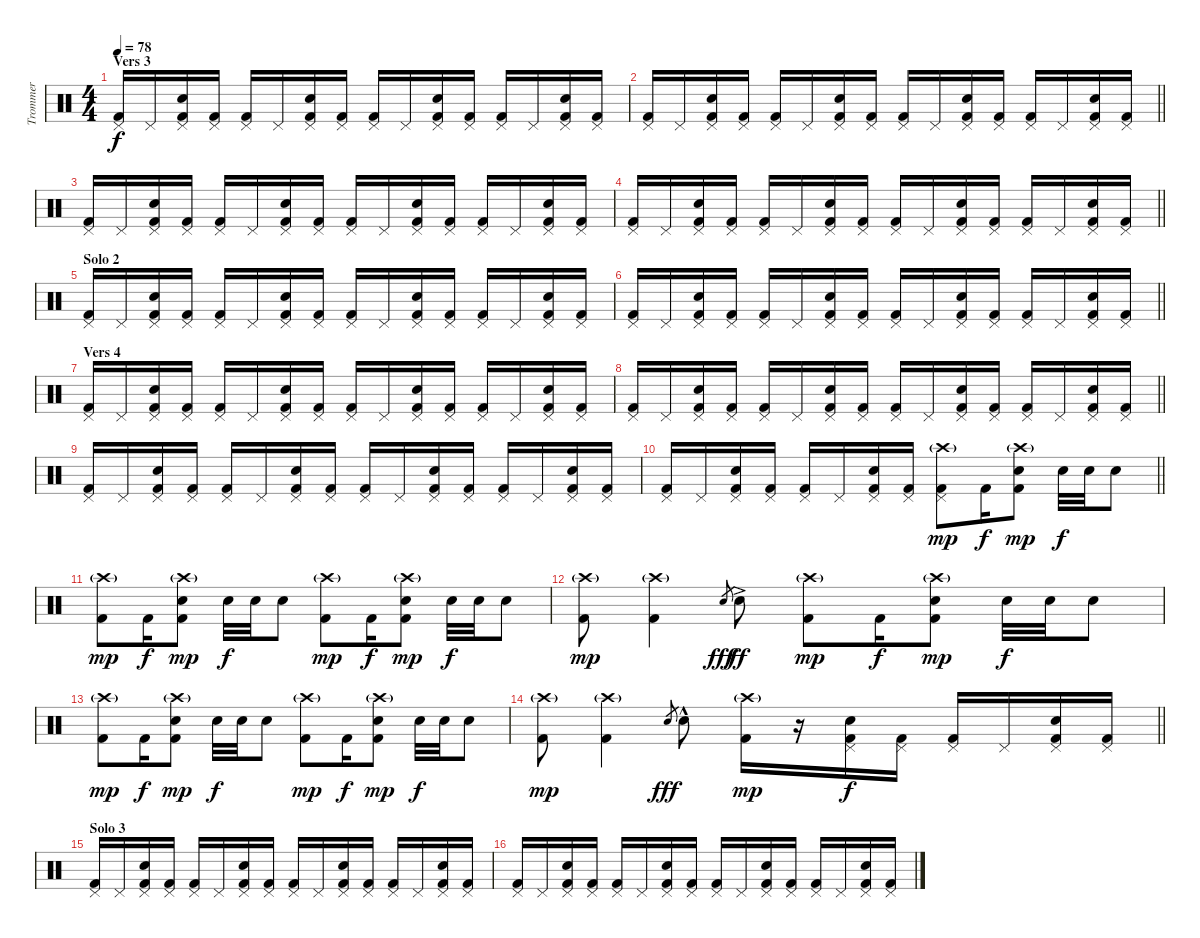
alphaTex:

\track ("Trommer" "Trommer") {instrument percussion}
\staff {score}
\articulation defaults
\ts (4 4)
\section ("" "Vers 3")
\tempo 78
\clef neutral
\ks c
("Pedal Hi-Hat (hit)" "Kick (hit) 2").16{dy f} "Pedal Hi-Hat (hit)".16 ("Pedal Hi-Hat (hit)" "Kick (hit) 2" "Electric Snare (hit)").16 ("Pedal Hi-Hat (hit)" "Kick (hit) 2").16 ("Pedal Hi-Hat (hit)" "Kick (hit) 2").16 "Pedal Hi-Hat (hit)".16 ("Pedal Hi-Hat (hit)" "Kick (hit) 2" "Electric Snare (hit)").16 ("Pedal Hi-Hat (hit)" "Kick (hit) 2").16 ("Pedal Hi-Hat (hit)" "Kick (hit) 2").16 "Pedal Hi-Hat (hit)".16 ("Pedal Hi-Hat (hit)" "Kick (hit) 2" "Electric Snare (hit)").16 ("Pedal Hi-Hat (hit)" "Kick (hit) 2").16 ("Pedal Hi-Hat (hit)" "Kick (hit) 2").16 "Pedal Hi-Hat (hit)".16 ("Pedal Hi-Hat (hit)" "Kick (hit) 2" "Electric Snare (hit)").16 ("Pedal Hi-Hat (hit)" "Kick (hit) 2").16 |
\barLineRight lightlight
("Pedal Hi-Hat (hit)" "Kick (hit) 2").16 "Pedal Hi-Hat (hit)".16 ("Pedal Hi-Hat (hit)" "Kick (hit) 2" "Electric Snare (hit)").16 ("Pedal Hi-Hat (hit)" "Kick (hit) 2").16 ("Pedal Hi-Hat (hit)" "Kick (hit) 2").16 "Pedal Hi-Hat (hit)".16 ("Pedal Hi-Hat (hit)" "Kick (hit) 2" "Electric Snare (hit)").16 ("Pedal Hi-Hat (hit)" "Kick (hit) 2").16 ("Pedal Hi-Hat (hit)" "Kick (hit) 2").16 "Pedal Hi-Hat (hit)".16 ("Pedal Hi-Hat (hit)" "Kick (hit) 2" "Electric Snare (hit)").16 ("Pedal Hi-Hat (hit)" "Kick (hit) 2").16 ("Pedal Hi-Hat (hit)" "Kick (hit) 2").16 "Pedal Hi-Hat (hit)".16 ("Pedal Hi-Hat (hit)" "Kick (hit) 2" "Electric Snare (hit)").16 ("Pedal Hi-Hat (hit)" "Kick (hit) 2").16 |
("Pedal Hi-Hat (hit)" "Kick (hit) 2").16 "Pedal Hi-Hat (hit)".16 ("Pedal Hi-Hat (hit)" "Kick (hit) 2" "Electric Snare (hit)").16 ("Pedal Hi-Hat (hit)" "Kick (hit) 2").16 ("Pedal Hi-Hat (hit)" "Kick (hit) 2").16 "Pedal Hi-Hat (hit)".16 ("Pedal Hi-Hat (hit)" "Kick (hit) 2" "Electric Snare (hit)").16 ("Pedal Hi-Hat (hit)" "Kick (hit) 2").16 ("Pedal Hi-Hat (hit)" "Kick (hit) 2").16 "Pedal Hi-Hat (hit)".16 ("Pedal Hi-Hat (hit)" "Kick (hit) 2" "Electric Snare (hit)").16 ("Pedal Hi-Hat (hit)" "Kick (hit) 2").16 ("Pedal Hi-Hat (hit)" "Kick (hit) 2").16 "Pedal Hi-Hat (hit)".16 ("Pedal Hi-Hat (hit)" "Kick (hit) 2" "Electric Snare (hit)").16 ("Pedal Hi-Hat (hit)" "Kick (hit) 2").16 |
\barLineRight lightlight
("Pedal Hi-Hat (hit)" "Kick (hit) 2").16 "Pedal Hi-Hat (hit)".16 ("Pedal Hi-Hat (hit)" "Kick (hit) 2" "Electric Snare (hit)").16 ("Pedal Hi-Hat (hit)" "Kick (hit) 2").16 ("Pedal Hi-Hat (hit)" "Kick (hit) 2").16 "Pedal Hi-Hat (hit)".16 ("Pedal Hi-Hat (hit)" "Kick (hit) 2" "Electric Snare (hit)").16 ("Pedal Hi-Hat (hit)" "Kick (hit) 2").16 ("Pedal Hi-Hat (hit)" "Kick (hit) 2").16 "Pedal Hi-Hat (hit)".16 ("Pedal Hi-Hat (hit)" "Kick (hit) 2" "Electric Snare (hit)").16 ("Pedal Hi-Hat (hit)" "Kick (hit) 2").16 ("Pedal Hi-Hat (hit)" "Kick (hit) 2").16 "Pedal Hi-Hat (hit)".16 ("Pedal Hi-Hat (hit)" "Kick (hit) 2" "Electric Snare (hit)").16 ("Pedal Hi-Hat (hit)" "Kick (hit) 2").16 |
\section ("" "Solo 2")
("Pedal Hi-Hat (hit)" "Kick (hit) 2").16 "Pedal Hi-Hat (hit)".16 ("Pedal Hi-Hat (hit)" "Kick (hit) 2" "Electric Snare (hit)").16 ("Pedal Hi-Hat (hit)" "Kick (hit) 2").16 ("Pedal Hi-Hat (hit)" "Kick (hit) 2").16 "Pedal Hi-Hat (hit)".16 ("Pedal Hi-Hat (hit)" "Kick (hit) 2" "Electric Snare (hit)").16 ("Pedal Hi-Hat (hit)" "Kick (hit) 2").16 ("Pedal Hi-Hat (hit)" "Kick (hit) 2").16 "Pedal Hi-Hat (hit)".16 ("Pedal Hi-Hat (hit)" "Kick (hit) 2" "Electric Snare (hit)").16 ("Pedal Hi-Hat (hit)" "Kick (hit) 2").16 ("Pedal Hi-Hat (hit)" "Kick (hit) 2").16 "Pedal Hi-Hat (hit)".16 ("Pedal Hi-Hat (hit)" "Kick (hit) 2" "Electric Snare (hit)").16 ("Pedal Hi-Hat (hit)" "Kick (hit) 2").16 |
\barLineRight lightlight
("Pedal Hi-Hat (hit)" "Kick (hit) 2").16 "Pedal Hi-Hat (hit)".16 ("Pedal Hi-Hat (hit)" "Kick (hit) 2" "Electric Snare (hit)").16 ("Pedal Hi-Hat (hit)" "Kick (hit) 2").16 ("Pedal Hi-Hat (hit)" "Kick (hit) 2").16 "Pedal Hi-Hat (hit)".16 ("Pedal Hi-Hat (hit)" "Kick (hit) 2" "Electric Snare (hit)").16 ("Pedal Hi-Hat (hit)" "Kick (hit) 2").16 ("Pedal Hi-Hat (hit)" "Kick (hit) 2").16 "Pedal Hi-Hat (hit)".16 ("Pedal Hi-Hat (hit)" "Kick (hit) 2" "Electric Snare (hit)").16 ("Pedal Hi-Hat (hit)" "Kick (hit) 2").16 ("Pedal Hi-Hat (hit)" "Kick (hit) 2").16 "Pedal Hi-Hat (hit)".16 ("Pedal Hi-Hat (hit)" "Kick (hit) 2" "Electric Snare (hit)").16 ("Pedal Hi-Hat (hit)" "Kick (hit) 2").16 |
\section ("" "Vers 4")
("Pedal Hi-Hat (hit)" "Kick (hit) 2").16 "Pedal Hi-Hat (hit)".16 ("Pedal Hi-Hat (hit)" "Kick (hit) 2" "Electric Snare (hit)").16 ("Pedal Hi-Hat (hit)" "Kick (hit) 2").16 ("Pedal Hi-Hat (hit)" "Kick (hit) 2").16 "Pedal Hi-Hat (hit)".16 ("Pedal Hi-Hat (hit)" "Kick (hit) 2" "Electric Snare (hit)").16 ("Pedal Hi-Hat (hit)" "Kick (hit) 2").16 ("Pedal Hi-Hat (hit)" "Kick (hit) 2").16 "Pedal Hi-Hat (hit)".16 ("Pedal Hi-Hat (hit)" "Kick (hit) 2" "Electric Snare (hit)").16 ("Pedal Hi-Hat (hit)" "Kick (hit) 2").16 ("Pedal Hi-Hat (hit)" "Kick (hit) 2").16 "Pedal Hi-Hat (hit)".16 ("Pedal Hi-Hat (hit)" "Kick (hit) 2" "Electric Snare (hit)").16 ("Pedal Hi-Hat (hit)" "Kick (hit) 2").16 |
\barLineRight lightlight
("Pedal Hi-Hat (hit)" "Kick (hit) 2").16 "Pedal Hi-Hat (hit)".16 ("Pedal Hi-Hat (hit)" "Kick (hit) 2" "Electric Snare (hit)").16 ("Pedal Hi-Hat (hit)" "Kick (hit) 2").16 ("Pedal Hi-Hat (hit)" "Kick (hit) 2").16 "Pedal Hi-Hat (hit)".16 ("Pedal Hi-Hat (hit)" "Kick (hit) 2" "Electric Snare (hit)").16 ("Pedal Hi-Hat (hit)" "Kick (hit) 2").16 ("Pedal Hi-Hat (hit)" "Kick (hit) 2").16 "Pedal Hi-Hat (hit)".16 ("Pedal Hi-Hat (hit)" "Kick (hit) 2" "Electric Snare (hit)").16 ("Pedal Hi-Hat (hit)" "Kick (hit) 2").16 ("Pedal Hi-Hat (hit)" "Kick (hit) 2").16 "Pedal Hi-Hat (hit)".16 ("Pedal Hi-Hat (hit)" "Kick (hit) 2" "Electric Snare (hit)").16 ("Pedal Hi-Hat (hit)" "Kick (hit) 2").16 |
("Pedal Hi-Hat (hit)" "Kick (hit) 2").16 "Pedal Hi-Hat (hit)".16 ("Pedal Hi-Hat (hit)" "Kick (hit) 2" "Electric Snare (hit)").16 ("Pedal Hi-Hat (hit)" "Kick (hit) 2").16 ("Pedal Hi-Hat (hit)" "Kick (hit) 2").16 "Pedal Hi-Hat (hit)".16 ("Pedal Hi-Hat (hit)" "Kick (hit) 2" "Electric Snare (hit)").16 ("Pedal Hi-Hat (hit)" "Kick (hit) 2").16 ("Pedal Hi-Hat (hit)" "Kick (hit) 2").16 "Pedal Hi-Hat (hit)".16 ("Pedal Hi-Hat (hit)" "Kick (hit) 2" "Electric Snare (hit)").16 ("Pedal Hi-Hat (hit)" "Kick (hit) 2").16 ("Pedal Hi-Hat (hit)" "Kick (hit) 2").16 "Pedal Hi-Hat (hit)".16 ("Pedal Hi-Hat (hit)" "Kick (hit) 2" "Electric Snare (hit)").16 ("Pedal Hi-Hat (hit)" "Kick (hit) 2").16 |
\barLineRight lightlight
("Pedal Hi-Hat (hit)" "Kick (hit) 2").16 "Pedal Hi-Hat (hit)".16 ("Pedal Hi-Hat (hit)" "Kick (hit) 2" "Electric Snare (hit)").16 ("Pedal Hi-Hat (hit)" "Kick (hit) 2").16 ("Pedal Hi-Hat (hit)" "Kick (hit) 2").16 "Pedal Hi-Hat (hit)".16 ("Pedal Hi-Hat (hit)" "Kick (hit) 2" "Electric Snare (hit)").16 ("Pedal Hi-Hat (hit)" "Kick (hit) 2").16 ("Pedal Hi-Hat (hit)" "Kick (hit) 2" "Crash high (hit)"{g}).8{dy mp} "Kick (hit) 2".16{dy f} ("Kick (hit) 2" "Electric Snare (hit)" "Crash high (hit)"{g}).8{dy mp} "Electric Snare (hit)".32{dy f} "Electric Snare (hit)".32 "Electric Snare (hit)".8 |
("Kick (hit) 2" "Crash high (hit)"{g}).8{dy mp} "Kick (hit) 2".16{dy f} ("Kick (hit) 2" "Electric Snare (hit)" "Crash high (hit)"{g}).8{dy mp} "Electric Snare (hit)".32{dy f} "Electric Snare (hit)".32 "Electric Snare (hit)".8 ("Kick (hit) 2" "Crash high (hit)"{g}).8{dy mp} "Kick (hit) 2".16{dy f} ("Kick (hit) 2" "Electric Snare (hit)" "Crash high (hit)"{g}).8{dy mp} "Electric Snare (hit)".32{dy f} "Electric Snare (hit)".32 "Electric Snare (hit)".8 |
("Kick (hit) 2" "Crash high (hit)"{g}).8{dy mp} ("Kick (hit) 2" "Crash high (hit)"{g}).4 "Electric Snare (hit)".8{gr dy fff} "Electric Snare (hit)"{ac}.8{dy ff} ("Kick (hit) 2" "Crash high (hit)"{g}).8{dy mp} "Kick (hit) 2".16{dy f} ("Kick (hit) 2" "Electric Snare (hit)" "Crash high (hit)"{g}).8{dy mp} "Electric Snare (hit)".32{dy f} "Electric Snare (hit)".32 "Electric Snare (hit)".8 |
("Kick (hit) 2" "Crash high (hit)"{g}).8{dy mp} "Kick (hit) 2".16{dy f} ("Kick (hit) 2" "Electric Snare (hit)" "Crash high (hit)"{g}).8{dy mp} "Electric Snare (hit)".32{dy f} "Electric Snare (hit)".32 "Electric Snare (hit)".8 ("Kick (hit) 2" "Crash high (hit)"{g}).8{dy mp} "Kick (hit) 2".16{dy f} ("Kick (hit) 2" "Electric Snare (hit)" "Crash high (hit)"{g}).8{dy mp} "Electric Snare (hit)".32{dy f} "Electric Snare (hit)".32 "Electric Snare (hit)".8 |
\barLineRight lightlight
("Kick (hit) 2" "Crash high (hit)"{g}).8{dy mp} ("Kick (hit) 2" "Crash high (hit)"{g}).4 "Electric Snare (hit)".8{gr dy fff} "Electric Snare (hit)"{hac}.8 ("Kick (hit) 2" "Crash high (hit)"{g}).16{dy mp} r.16 ("Pedal Hi-Hat (hit)" "Kick (hit) 2" "Electric Snare (hit)").16{dy f} ("Pedal Hi-Hat (hit)" "Kick (hit) 2").16 ("Pedal Hi-Hat (hit)" "Kick (hit) 2").16 "Pedal Hi-Hat (hit)".16 ("Pedal Hi-Hat (hit)" "Kick (hit) 2" "Electric Snare (hit)").16 ("Pedal Hi-Hat (hit)" "Kick (hit) 2").16 |
\section ("" "Solo 3")
("Pedal Hi-Hat (hit)" "Kick (hit) 2").16 "Pedal Hi-Hat (hit)".16 ("Pedal Hi-Hat (hit)" "Kick (hit) 2" "Electric Snare (hit)").16 ("Pedal Hi-Hat (hit)" "Kick (hit) 2").16 ("Pedal Hi-Hat (hit)" "Kick (hit) 2").16 "Pedal Hi-Hat (hit)".16 ("Pedal Hi-Hat (hit)" "Kick (hit) 2" "Electric Snare (hit)").16 ("Pedal Hi-Hat (hit)" "Kick (hit) 2").16 ("Pedal Hi-Hat (hit)" "Kick (hit) 2").16 "Pedal Hi-Hat (hit)".16 ("Pedal Hi-Hat (hit)" "Kick (hit) 2" "Electric Snare (hit)").16 ("Pedal Hi-Hat (hit)" "Kick (hit) 2").16 ("Pedal Hi-Hat (hit)" "Kick (hit) 2").16 "Pedal Hi-Hat (hit)".16 ("Pedal Hi-Hat (hit)" "Kick (hit) 2" "Electric Snare (hit)").16 ("Pedal Hi-Hat (hit)" "Kick (hit) 2").16 |
("Pedal Hi-Hat (hit)" "Kick (hit) 2").16 "Pedal Hi-Hat (hit)".16 ("Pedal Hi-Hat (hit)" "Kick (hit) 2" "Electric Snare (hit)").16 ("Pedal Hi-Hat (hit)" "Kick (hit) 2").16 ("Pedal Hi-Hat (hit)" "Kick (hit) 2").16 "Pedal Hi-Hat (hit)".16 ("Pedal Hi-Hat (hit)" "Kick (hit) 2" "Electric Snare (hit)").16 ("Pedal Hi-Hat (hit)" "Kick (hit) 2").16 ("Pedal Hi-Hat (hit)" "Kick (hit) 2").16 "Pedal Hi-Hat (hit)".16 ("Pedal Hi-Hat (hit)" "Kick (hit) 2" "Electric Snare (hit)").16 ("Pedal Hi-Hat (hit)" "Kick (hit) 2").16 ("Pedal Hi-Hat (hit)" "Kick (hit) 2").16 "Pedal Hi-Hat (hit)".16 ("Pedal Hi-Hat (hit)" "Kick (hit) 2" "Electric Snare (hit)").16 ("Pedal Hi-Hat (hit)" "Kick (hit) 2").16
